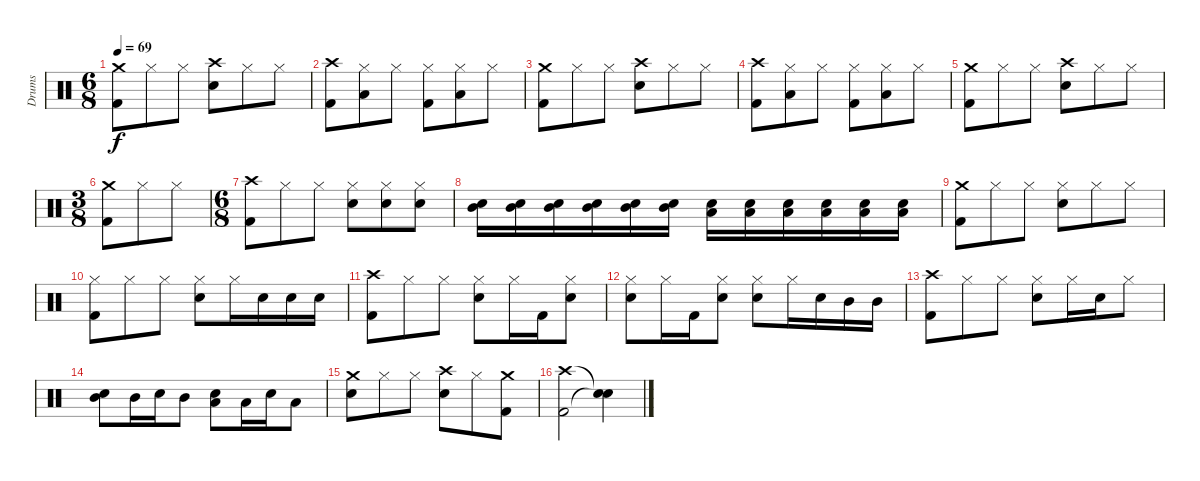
\track ("Drums" "Drums") {instrument percussion}
\staff {score}
\articulation defaults
\ts (6 8)
\tempo 69
\clef neutral
\ks c
("Crash medium (hit)" "Kick (hit) 2").8{dy f} "Hi-Hat (closed)".8 "Hi-Hat (closed)".8 ("Crash high (hit)" "Snare (hit) 2").8 "Hi-Hat (closed)".8 "Hi-Hat (closed)".8 |
("Crash high (hit)" "Kick (hit) 2").8 ("Hi-Hat (closed)" "Low Tom (hit)").8 "Hi-Hat (closed)".8 ("Hi-Hat (closed)" "Kick (hit) 2").8 ("Hi-Hat (closed)" "Low Tom (hit)").8 "Hi-Hat (closed)".8 |
("Crash medium (hit)" "Kick (hit) 2").8 "Hi-Hat (closed)".8 "Hi-Hat (closed)".8 ("Crash high (hit)" "Snare (hit) 2").8 "Hi-Hat (closed)".8 "Hi-Hat (closed)".8 |
("Crash high (hit)" "Kick (hit) 2").8 ("Hi-Hat (closed)" "Low Tom (hit)").8 "Hi-Hat (closed)".8 ("Hi-Hat (closed)" "Kick (hit) 2").8 ("Hi-Hat (closed)" "Low Tom (hit)").8 "Hi-Hat (closed)".8 |
("Crash medium (hit)" "Kick (hit) 2").8 "Hi-Hat (closed)".8 "Hi-Hat (closed)".8 ("Crash high (hit)" "Snare (hit) 2").8 "Hi-Hat (closed)".8 "Hi-Hat (closed)".8 |
\ts (3 8)
("Crash medium (hit)" "Kick (hit) 2").8 "Hi-Hat (closed)".8 "Hi-Hat (closed)".8 |
\ts (6 8)
("Crash high (hit)" "Kick (hit) 2").8 "Hi-Hat (closed)".8 "Hi-Hat (closed)".8 ("Hi-Hat (closed)" "Snare (hit) 2").8 ("Hi-Hat (closed)" "Snare (hit) 2").8 ("Hi-Hat (closed)" "Snare (hit) 2").8 |
("Mid Tom (hit)" "Snare (hit) 2").16 ("Mid Tom (hit)" "Snare (hit) 2").16 ("Mid Tom (hit)" "Snare (hit) 2").16 ("Mid Tom (hit)" "Snare (hit) 2").16 ("Mid Tom (hit)" "Snare (hit) 2").16 ("Mid Tom (hit)" "Snare (hit) 2").16 ("Low Tom (hit)" "Snare (hit) 2").16 ("Low Tom (hit)" "Snare (hit) 2").16 ("Low Tom (hit)" "Snare (hit) 2").16 ("Low Tom (hit)" "Snare (hit) 2").16 ("Low Tom (hit)" "Snare (hit) 2").16 ("Low Tom (hit)" "Snare (hit) 2").16 |
("Crash medium (hit)" "Kick (hit) 2").8 "Hi-Hat (closed)".8 "Hi-Hat (closed)".8 ("Hi-Hat (closed)" "Snare (hit) 2").8 "Hi-Hat (closed)".8 "Hi-Hat (closed)".8 |
("Hi-Hat (closed)" "Kick (hit) 2").8 "Hi-Hat (closed)".8 "Hi-Hat (closed)".8 ("Hi-Hat (closed)" "Snare (hit) 2").8 "Hi-Hat (closed)".16 "Snare (hit) 2".16 "Snare (hit) 2".16 "Snare (hit) 2".16 |
("Crash high (hit)" "Kick (hit) 2").8 "Hi-Hat (closed)".8 "Hi-Hat (closed)".8 ("Hi-Hat (closed)" "Snare (hit) 2").8 "Hi-Hat (closed)".16 "Kick (hit) 2".16 ("Hi-Hat (closed)" "Snare (hit) 2").8 |
("Hi-Hat (closed)" "Snare (hit) 2").8 "Hi-Hat (closed)".16 "Kick (hit) 2".16 ("Hi-Hat (closed)" "Snare (hit) 2").8 ("Hi-Hat (closed)" "Snare (hit) 2").8 "Hi-Hat (closed)".16 "Snare (hit) 2".16 "Mid Tom (hit)".16 "Mid Tom (hit)".16 |
("Crash high (hit)" "Kick (hit) 2").8 "Hi-Hat (closed)".8 "Hi-Hat (closed)".8 ("Hi-Hat (closed)" "Snare (hit) 2").8 "Hi-Hat (closed)".16 "Snare (hit) 2".16 "Hi-Hat (closed)".8 |
("Snare (hit) 2" "Mid Tom (hit)").8 "Mid Tom (hit)".16 "Snare (hit) 2".16 "Mid Tom (hit)".8 ("Snare (hit) 2" "Low Tom (hit)").8 "Low Tom (hit)".16 "Snare (hit) 2".16 "Low Tom (hit)".8 |
("Crash medium (hit)" "Snare (hit) 2").8 "Hi-Hat (closed)".8 "Hi-Hat (closed)".8 ("Crash high (hit)" "Snare (hit) 2").8 "Hi-Hat (closed)".8 ("Crash medium (hit)" "Kick (hit) 2").8 |
("Crash high (hit)" "Kick (hit) 2").2 ("Snare (hit)"{t} "Snare (hit)"{t}).4
